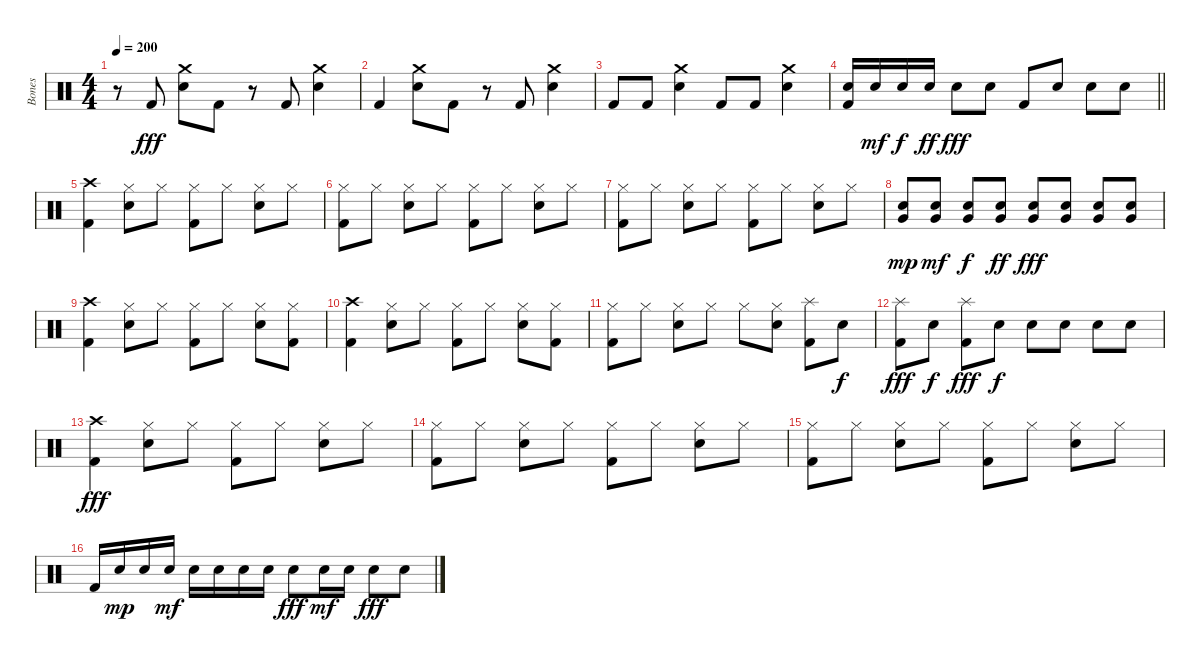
\track ("Bones " "Bones ") {instrument percussion}
\staff {score}
\articulation defaults
\ts (4 4)
\tempo 200
\clef neutral
\ks c
r.8{dy fff} "Kick (hit) 2".8 ("Crash medium (hit)" "Snare (hit) 2").8 "Kick (hit) 2".8 r.8 "Kick (hit) 2".8 ("Crash medium (hit)" "Snare (hit) 2").4 |
"Kick (hit) 2".4 ("Crash medium (hit)" "Snare (hit) 2").8 "Kick (hit) 2".8 r.8 "Kick (hit) 2".8 ("Crash medium (hit)" "Snare (hit) 2").4 |
"Kick (hit) 2".8 "Kick (hit) 2".8 ("Crash medium (hit)" "Snare (hit) 2").4 "Kick (hit) 2".8 "Kick (hit) 2".8 ("Crash medium (hit)" "Snare (hit) 2").4 |
\barLineRight lightlight
("Snare (hit) 2" "Kick (hit) 2").16 "Snare (hit) 2".16{dy mf} "Snare (hit) 2".16{dy f} "Snare (hit) 2".16{dy ff} "Snare (hit) 2".8{dy fff} "Snare (hit) 2".8 "Kick (hit) 2".8 "Snare (hit) 2".8 "Snare (hit) 2".8 "Snare (hit) 2".8 |
("Crash high (hit)" "Kick (hit) 2").4 ("Hi-Hat (closed)" "Snare (hit) 2").8 "Hi-Hat (closed)".8 ("Hi-Hat (closed)" "Kick (hit) 2").8 "Hi-Hat (closed)".8 ("Hi-Hat (closed)" "Snare (hit) 2").8 "Hi-Hat (closed)".8 |
("Hi-Hat (closed)" "Kick (hit) 2").8 "Hi-Hat (closed)".8 ("Hi-Hat (closed)" "Snare (hit) 2").8 "Hi-Hat (closed)".8 ("Hi-Hat (closed)" "Kick (hit) 2").8 "Hi-Hat (closed)".8 ("Hi-Hat (closed)" "Snare (hit) 2").8 "Hi-Hat (closed)".8 |
("Hi-Hat (closed)" "Kick (hit) 2").8 "Hi-Hat (closed)".8 ("Hi-Hat (closed)" "Snare (hit) 2").8 "Hi-Hat (closed)".8 ("Hi-Hat (closed)" "Kick (hit) 2").8 "Hi-Hat (closed)".8 ("Hi-Hat (closed)" "Snare (hit) 2").8 "Hi-Hat (closed)".8 |
("Very Low Tom (hit)" "Snare (hit) 2").8{dy mp} ("Very Low Tom (hit)" "Snare (hit) 2").8{dy mf} ("Very Low Tom (hit)" "Snare (hit) 2").8{dy f} ("Very Low Tom (hit)" "Snare (hit) 2").8{dy ff} ("Very Low Tom (hit)" "Snare (hit) 2").8{dy fff} ("Very Low Tom (hit)" "Snare (hit) 2").8 ("Very Low Tom (hit)" "Snare (hit) 2").8 ("Very Low Tom (hit)" "Snare (hit) 2").8 |
("Crash high (hit)" "Kick (hit) 2").4 ("Hi-Hat (closed)" "Snare (hit) 2").8 "Hi-Hat (closed)".8 ("Hi-Hat (closed)" "Kick (hit) 2").8 "Hi-Hat (closed)".8 ("Hi-Hat (closed)" "Snare (hit) 2").8 ("Hi-Hat (closed)" "Kick (hit) 2").8 |
("Crash high (hit)" "Kick (hit) 2").4 ("Hi-Hat (closed)" "Snare (hit) 2").8 "Hi-Hat (closed)".8 ("Hi-Hat (closed)" "Kick (hit) 2").8 "Hi-Hat (closed)".8 ("Hi-Hat (closed)" "Snare (hit) 2").8 ("Hi-Hat (closed)" "Kick (hit) 2").8 |
("Hi-Hat (closed)" "Kick (hit) 2").8 "Hi-Hat (closed)".8 ("Hi-Hat (closed)" "Snare (hit) 2").8 "Hi-Hat (closed)".8 "Hi-Hat (closed)".8 ("Hi-Hat (closed)" "Snare (hit) 2").8 ("Splash (hit)" "Kick (hit) 2").8 "Snare (hit) 2".8{dy f} |
("Splash (hit)" "Kick (hit) 2").8{dy fff} "Snare (hit) 2".8{dy f} ("Splash (hit)" "Kick (hit) 2").8{dy fff} "Snare (hit) 2".8{dy f} "Snare (hit) 2".8 "Snare (hit) 2".8 "Snare (hit) 2".8 "Snare (hit) 2".8 |
("Crash high (hit)" "Kick (hit) 2").4{dy fff} ("Hi-Hat (closed)" "Snare (hit) 2").8 "Hi-Hat (closed)".8 ("Hi-Hat (closed)" "Kick (hit) 2").8 "Hi-Hat (closed)".8 ("Hi-Hat (closed)" "Snare (hit) 2").8 "Hi-Hat (closed)".8 |
("Hi-Hat (closed)" "Kick (hit) 2").8 "Hi-Hat (closed)".8 ("Hi-Hat (closed)" "Snare (hit) 2").8 "Hi-Hat (closed)".8 ("Hi-Hat (closed)" "Kick (hit) 2").8 "Hi-Hat (closed)".8 ("Hi-Hat (closed)" "Snare (hit) 2").8 "Hi-Hat (closed)".8 |
("Hi-Hat (closed)" "Kick (hit) 2").8 "Hi-Hat (closed)".8 ("Hi-Hat (closed)" "Snare (hit) 2").8 "Hi-Hat (closed)".8 ("Hi-Hat (closed)" "Kick (hit) 2").8 "Hi-Hat (closed)".8 ("Hi-Hat (closed)" "Snare (hit) 2").8 "Hi-Hat (closed)".8 |
"Kick (hit) 2".16 "Snare (hit) 2".16{dy mp} "Snare (hit) 2".16 "Snare (hit) 2".16{dy mf} "Snare (hit) 2".16 "Snare (hit) 2".16 "Snare (hit) 2".16 "Snare (hit) 2".16 "Snare (hit) 2".8{dy fff} "Snare (hit) 2".16{dy mf} "Snare (hit) 2".16 "Snare (hit) 2".8{dy fff} "Snare (hit) 2".8
